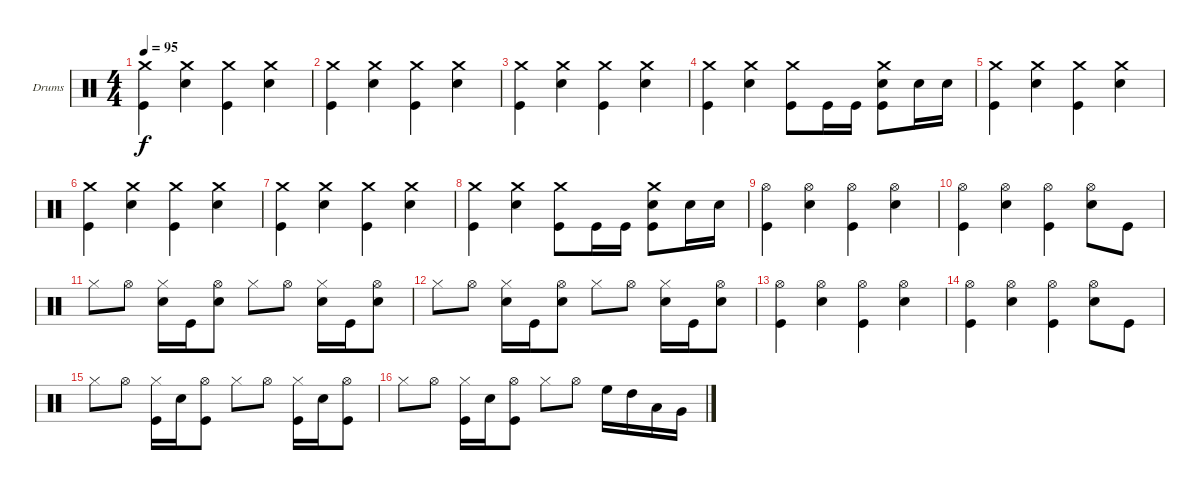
\bracketExtendMode groupsimilarinstruments
\firstSystemTrackNameOrientation horizontal
\otherSystemsTrackNameOrientation horizontal
\track ("Drumkit" "Drums") {instrument percussion}
\staff {score}
\articulation defaults
\ts (4 4)
\tempo 95
\clef neutral
\ks c
("Crash medium (hit)" "Kick (hit)").4{dy f} ("Crash medium (hit)" "Snare (hit) 2").4 ("Crash medium (hit)" "Kick (hit)").4 ("Crash medium (hit)" "Snare (hit) 2").4 |
("Crash medium (hit)" "Kick (hit)").4 ("Crash medium (hit)" "Snare (hit) 2").4 ("Crash medium (hit)" "Kick (hit)").4 ("Crash medium (hit)" "Snare (hit) 2").4 |
("Crash medium (hit)" "Kick (hit)").4 ("Crash medium (hit)" "Snare (hit) 2").4 ("Crash medium (hit)" "Kick (hit)").4 ("Crash medium (hit)" "Snare (hit) 2").4 |
("Crash medium (hit)" "Kick (hit)").4 ("Crash medium (hit)" "Snare (hit) 2").4 ("Crash medium (hit)" "Kick (hit)").8 "Kick (hit)".16 "Kick (hit)".16 ("Crash medium (hit)" "Snare (hit) 2" "Kick (hit)").8 "Snare (hit) 2".16 "Snare (hit) 2".16 |
("Crash medium (hit)" "Kick (hit)").4 ("Crash medium (hit)" "Snare (hit) 2").4 ("Crash medium (hit)" "Kick (hit)").4 ("Crash medium (hit)" "Snare (hit) 2").4 |
("Crash medium (hit)" "Kick (hit)").4 ("Crash medium (hit)" "Snare (hit) 2").4 ("Crash medium (hit)" "Kick (hit)").4 ("Crash medium (hit)" "Snare (hit) 2").4 |
("Crash medium (hit)" "Kick (hit)").4 ("Crash medium (hit)" "Snare (hit) 2").4 ("Crash medium (hit)" "Kick (hit)").4 ("Crash medium (hit)" "Snare (hit) 2").4 |
("Crash medium (hit)" "Kick (hit)").4 ("Crash medium (hit)" "Snare (hit) 2").4 ("Crash medium (hit)" "Kick (hit)").8 "Kick (hit)".16 "Kick (hit)".16 ("Crash medium (hit)" "Snare (hit) 2" "Kick (hit)").8 "Snare (hit) 2".16 "Snare (hit) 2".16 |
("Hi-Hat (open)" "Kick (hit)").4 ("Hi-Hat (open)" "Snare (hit) 2").4 ("Hi-Hat (open)" "Kick (hit)").4 ("Hi-Hat (open)" "Snare (hit) 2").4 |
("Hi-Hat (open)" "Kick (hit)").4 ("Hi-Hat (open)" "Snare (hit) 2").4 ("Hi-Hat (open)" "Kick (hit)").4 ("Hi-Hat (open)" "Snare (hit) 2").8 "Kick (hit)".8 |
"Hi-Hat (closed)".8 "Hi-Hat (open)".8 ("Hi-Hat (closed)" "Snare (hit) 2").16 "Kick (hit)".16 ("Hi-Hat (open)" "Snare (hit) 2").8 "Hi-Hat (closed)".8 "Hi-Hat (open)".8 ("Hi-Hat (closed)" "Snare (hit) 2").16 "Kick (hit)".16 ("Hi-Hat (open)" "Snare (hit) 2").8 |
"Hi-Hat (closed)".8 "Hi-Hat (open)".8 ("Hi-Hat (closed)" "Snare (hit) 2").16 "Kick (hit)".16 ("Hi-Hat (open)" "Snare (hit) 2").8 "Hi-Hat (closed)".8 "Hi-Hat (open)".8 ("Hi-Hat (closed)" "Snare (hit) 2").16 "Kick (hit)".16 ("Hi-Hat (open)" "Snare (hit) 2").8 |
("Hi-Hat (open)" "Kick (hit)").4 ("Hi-Hat (open)" "Snare (hit) 2").4 ("Hi-Hat (open)" "Kick (hit)").4 ("Hi-Hat (open)" "Snare (hit) 2").4 |
("Hi-Hat (open)" "Kick (hit)").4 ("Hi-Hat (open)" "Snare (hit) 2").4 ("Hi-Hat (open)" "Kick (hit)").4 ("Hi-Hat (open)" "Snare (hit) 2").8 "Kick (hit)".8 |
"Hi-Hat (closed)".8 "Hi-Hat (open)".8 ("Hi-Hat (closed)" "Kick (hit)").16 "Snare (hit) 2".16 ("Hi-Hat (open)" "Kick (hit)").8 "Hi-Hat (closed)".8 "Hi-Hat (open)".8 ("Hi-Hat (closed)" "Kick (hit)").16 "Snare (hit) 2".16 ("Hi-Hat (open)" "Kick (hit)").8 |
"Hi-Hat (closed)".8 "Hi-Hat (open)".8 ("Hi-Hat (closed)" "Kick (hit)").16 "Snare (hit) 2".16 ("Hi-Hat (open)" "Kick (hit)").8 "Hi-Hat (closed)".8 "Hi-Hat (open)".8 "High Floor Tom (hit)".16 "High Tom (hit)".16 "Low Tom (hit)".16 "Very Low Tom (hit)".16
